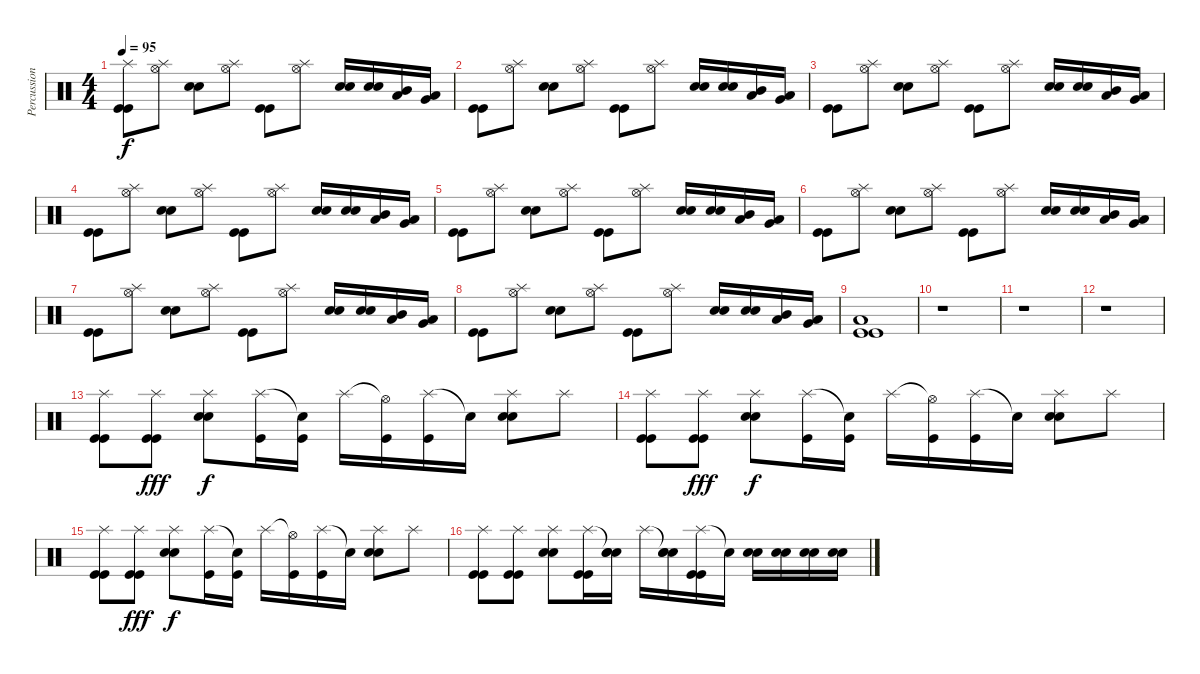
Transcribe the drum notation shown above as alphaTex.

\track ("Percussions" "Percussion") {instrument percussion}
\staff {score}
\articulation defaults
\ts (4 4)
\tempo 95
\clef neutral
\ks c
("Splash (hit)" "Kick (hit)" "Kick (hit)").8{dy f} ("Splash (hit)" "Hi-Hat (open)").8 ("Electric Snare (hit)" "Electric Snare (hit)").8 ("Splash (hit)" "Hi-Hat (open)").8 ("Kick (hit)" "Kick (hit)").8 ("Splash (hit)" "Hi-Hat (open)").8 ("Electric Snare (hit)" "Electric Snare (hit)").16 ("Electric Snare (hit)" "Electric Snare (hit)").16 ("Mid Tom (hit)" "Low Tom (hit)").16 ("Low Tom (hit)" "Very Low Tom (hit)").16 |
("Kick (hit)" "Kick (hit)").8 ("Splash (hit)" "Hi-Hat (open)").8 ("Electric Snare (hit)" "Electric Snare (hit)").8 ("Splash (hit)" "Hi-Hat (open)").8 ("Kick (hit)" "Kick (hit)").8 ("Splash (hit)" "Hi-Hat (open)").8 ("Electric Snare (hit)" "Electric Snare (hit)").16 ("Electric Snare (hit)" "Electric Snare (hit)").16 ("Mid Tom (hit)" "Low Tom (hit)").16 ("Low Tom (hit)" "Very Low Tom (hit)").16 |
("Kick (hit)" "Kick (hit)").8 ("Splash (hit)" "Hi-Hat (open)").8 ("Electric Snare (hit)" "Electric Snare (hit)").8 ("Splash (hit)" "Hi-Hat (open)").8 ("Kick (hit)" "Kick (hit)").8 ("Splash (hit)" "Hi-Hat (open)").8 ("Electric Snare (hit)" "Electric Snare (hit)").16 ("Electric Snare (hit)" "Electric Snare (hit)").16 ("Mid Tom (hit)" "Low Tom (hit)").16 ("Low Tom (hit)" "Very Low Tom (hit)").16 |
("Kick (hit)" "Kick (hit)").8 ("Splash (hit)" "Hi-Hat (open)").8 ("Electric Snare (hit)" "Electric Snare (hit)").8 ("Splash (hit)" "Hi-Hat (open)").8 ("Kick (hit)" "Kick (hit)").8 ("Splash (hit)" "Hi-Hat (open)").8 ("Electric Snare (hit)" "Electric Snare (hit)").16 ("Electric Snare (hit)" "Electric Snare (hit)").16 ("Mid Tom (hit)" "Low Tom (hit)").16 ("Low Tom (hit)" "Very Low Tom (hit)").16 |
("Kick (hit)" "Kick (hit)").8 ("Splash (hit)" "Hi-Hat (open)").8 ("Electric Snare (hit)" "Electric Snare (hit)").8 ("Splash (hit)" "Hi-Hat (open)").8 ("Kick (hit)" "Kick (hit)").8 ("Splash (hit)" "Hi-Hat (open)").8 ("Electric Snare (hit)" "Electric Snare (hit)").16 ("Electric Snare (hit)" "Electric Snare (hit)").16 ("Mid Tom (hit)" "Low Tom (hit)").16 ("Low Tom (hit)" "Very Low Tom (hit)").16 |
("Kick (hit)" "Kick (hit)").8 ("Splash (hit)" "Hi-Hat (open)").8 ("Electric Snare (hit)" "Electric Snare (hit)").8 ("Splash (hit)" "Hi-Hat (open)").8 ("Kick (hit)" "Kick (hit)").8 ("Splash (hit)" "Hi-Hat (open)").8 ("Electric Snare (hit)" "Electric Snare (hit)").16 ("Electric Snare (hit)" "Electric Snare (hit)").16 ("Mid Tom (hit)" "Low Tom (hit)").16 ("Low Tom (hit)" "Very Low Tom (hit)").16 |
("Kick (hit)" "Kick (hit)").8 ("Splash (hit)" "Hi-Hat (open)").8 ("Electric Snare (hit)" "Electric Snare (hit)").8 ("Splash (hit)" "Hi-Hat (open)").8 ("Kick (hit)" "Kick (hit)").8 ("Splash (hit)" "Hi-Hat (open)").8 ("Electric Snare (hit)" "Electric Snare (hit)").16 ("Electric Snare (hit)" "Electric Snare (hit)").16 ("Mid Tom (hit)" "Low Tom (hit)").16 ("Low Tom (hit)" "Very Low Tom (hit)").16 |
("Kick (hit)" "Kick (hit)").8 ("Splash (hit)" "Hi-Hat (open)").8 ("Electric Snare (hit)" "Electric Snare (hit)").8 ("Splash (hit)" "Hi-Hat (open)").8 ("Kick (hit)" "Kick (hit)").8 ("Splash (hit)" "Hi-Hat (open)").8 ("Electric Snare (hit)" "Electric Snare (hit)").16 ("Electric Snare (hit)" "Electric Snare (hit)").16 ("Mid Tom (hit)" "Low Tom (hit)").16 ("Low Tom (hit)" "Very Low Tom (hit)").16 |
("Low Floor Tom (hit)" "Kick (hit)" "Kick (hit)").1 |
r.1 |
r.1 |
r.1 |
("Splash (hit)" "Kick (hit)" "Kick (hit)").8 ("Splash (hit)" "Kick (hit)" "Kick (hit)").8{dy fff} ("Splash (hit)" "Electric Snare (hit)" "Electric Snare (hit)").8{dy f} ("Splash (hit)" "Kick (hit)").16 ("Snare (hit)"{t} "Kick (hit)").16 "Splash (hit)".16 ("Hi-Hat (open)"{t} "Kick (hit)").16 ("Splash (hit)" "Kick (hit)").16 "Snare (hit)"{t}.16 ("Splash (hit)" "Electric Snare (hit)" "Electric Snare (hit)").8 "Splash (hit)".8 |
("Splash (hit)" "Kick (hit)" "Kick (hit)").8 ("Splash (hit)" "Kick (hit)" "Kick (hit)").8{dy fff} ("Splash (hit)" "Electric Snare (hit)" "Electric Snare (hit)").8{dy f} ("Splash (hit)" "Kick (hit)").16 ("Snare (hit)"{t} "Kick (hit)").16 "Splash (hit)".16 ("Hi-Hat (open)"{t} "Kick (hit)").16 ("Splash (hit)" "Kick (hit)").16 "Snare (hit)"{t}.16 ("Splash (hit)" "Electric Snare (hit)" "Electric Snare (hit)").8 "Splash (hit)".8 |
("Splash (hit)" "Kick (hit)" "Kick (hit)").8 ("Splash (hit)" "Kick (hit)" "Kick (hit)").8{dy fff} ("Splash (hit)" "Electric Snare (hit)" "Electric Snare (hit)").8{dy f} ("Splash (hit)" "Kick (hit)").16 ("Snare (hit)"{t} "Kick (hit)").16 "Splash (hit)".16 ("Hi-Hat (open)"{t} "Kick (hit)").16 ("Splash (hit)" "Kick (hit)").16 "Snare (hit)"{t}.16 ("Splash (hit)" "Electric Snare (hit)" "Electric Snare (hit)").8 "Splash (hit)".8 |
("Splash (hit)" "Kick (hit)" "Kick (hit)").8 ("Splash (hit)" "Kick (hit)" "Kick (hit)").8 ("Splash (hit)" "Electric Snare (hit)" "Electric Snare (hit)").8 ("Splash (hit)" "Kick (hit)" "Kick (hit)").16 ("Snare (hit)"{t} "Electric Snare (hit)" "Electric Snare (hit)").16 "Splash (hit)".16 ("Snare (hit)"{t} "Electric Snare (hit)" "Electric Snare (hit)").16 ("Splash (hit)" "Kick (hit)" "Kick (hit)").16 "Snare (hit)"{t}.16 ("Electric Snare (hit)" "Electric Snare (hit)").16 ("Electric Snare (hit)" "Electric Snare (hit)").16 ("Electric Snare (hit)" "Electric Snare (hit)").16 ("Electric Snare (hit)" "Electric Snare (hit)").16
